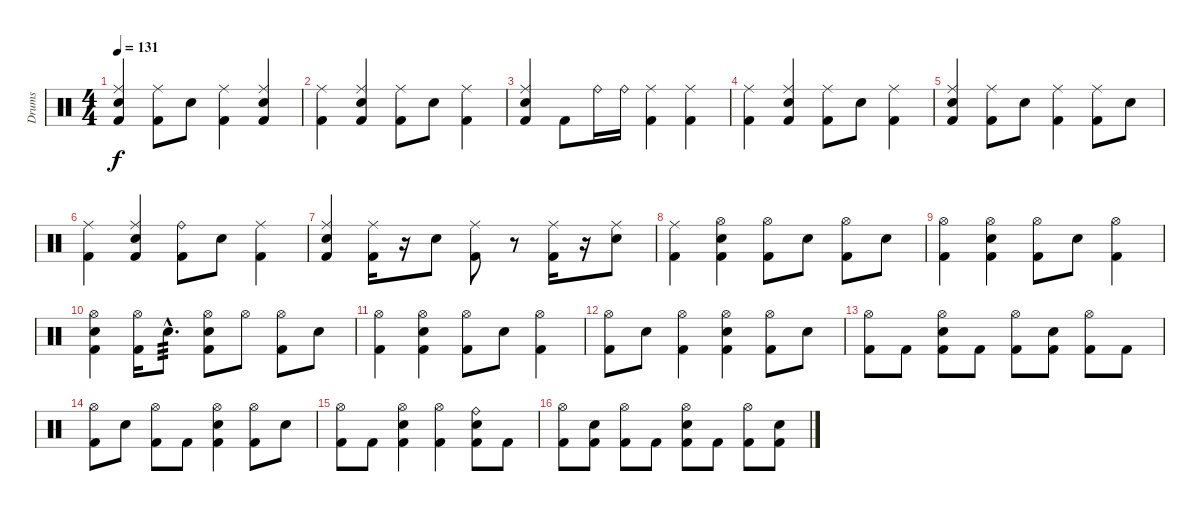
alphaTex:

\track ("Drums" "Drums") {instrument percussion}
\staff {score}
\articulation defaults
\ts (4 4)
\tempo 131
\clef neutral
\ks c
("Electric Snare (hit)" "Ride (middle)" "Kick (hit) 2").4{dy f} ("Ride (middle)" "Kick (hit) 2").8 "Electric Snare (hit)".8 ("Ride (middle)" "Kick (hit) 2").4 ("Electric Snare (hit)" "Ride (middle)" "Kick (hit) 2").4 |
("Ride (middle)" "Kick (hit) 2").4 ("Electric Snare (hit)" "Ride (middle)" "Kick (hit) 2").4 ("Ride (middle)" "Kick (hit) 2").8 "Electric Snare (hit)".8 ("Ride (middle)" "Kick (hit) 2").4 |
("Electric Snare (hit)" "Ride (middle)" "Kick (hit) 2").4 "Kick (hit) 2".8 "Ride (bell)".16 "Ride (bell)".16 ("Ride (middle)" "Kick (hit) 2").4 ("Ride (middle)" "Kick (hit) 2").4 |
("Ride (middle)" "Kick (hit) 2").4 ("Electric Snare (hit)" "Ride (middle)" "Kick (hit) 2").4 ("Ride (middle)" "Kick (hit) 2").8 "Electric Snare (hit)".8 ("Ride (middle)" "Kick (hit) 2").4 |
("Electric Snare (hit)" "Ride (middle)" "Kick (hit) 2").4 ("Ride (middle)" "Kick (hit) 2").8 "Electric Snare (hit)".8 ("Ride (middle)" "Kick (hit) 2").4 ("Ride (middle)" "Kick (hit) 2").8 "Electric Snare (hit)".8 |
("Ride (middle)" "Kick (hit) 2").4 ("Electric Snare (hit)" "Ride (middle)" "Kick (hit) 2").4 ("Ride (bell)" "Kick (hit) 2").8 "Electric Snare (hit)".8 ("Ride (middle)" "Kick (hit) 2").4 |
("Electric Snare (hit)" "Ride (middle)" "Kick (hit) 2").4 ("Ride (middle)" "Kick (hit) 2").16 r.16 "Electric Snare (hit)".8 ("Ride (middle)" "Kick (hit) 2").8 r.8 ("Ride (middle)" "Kick (hit) 2").16 r.16 ("Ride (middle)" "Electric Snare (hit)").8 |
("Ride (middle)" "Kick (hit) 2").4 ("Electric Snare (hit)" "Hi-Hat (open)" "Kick (hit) 2").4 ("Hi-Hat (open)" "Kick (hit) 2").8 "Electric Snare (hit)".8 ("Hi-Hat (open)" "Kick (hit) 2").8 "Electric Snare (hit)".8 |
("Hi-Hat (open)" "Kick (hit) 2").4 ("Electric Snare (hit)" "Hi-Hat (open)" "Kick (hit) 2").4 ("Hi-Hat (open)" "Kick (hit) 2").8 "Electric Snare (hit)".8 ("Hi-Hat (open)" "Kick (hit) 2").4 |
("Electric Snare (hit)" "Hi-Hat (open)" "Kick (hit) 2").4 ("Hi-Hat (open)" "Kick (hit) 2").16 "Electric Snare (hit)"{hac}.8{d tp 3} ("Electric Snare (hit)" "Hi-Hat (open)" "Kick (hit) 2").8 "Hi-Hat (open)".8 ("Hi-Hat (open)" "Kick (hit) 2").8 "Electric Snare (hit)".8 |
("Hi-Hat (open)" "Kick (hit) 2").4 ("Electric Snare (hit)" "Hi-Hat (open)" "Kick (hit) 2").4 ("Hi-Hat (open)" "Kick (hit) 2").8 "Electric Snare (hit)".8 ("Hi-Hat (open)" "Kick (hit) 2").4 |
("Hi-Hat (open)" "Kick (hit) 2").8 "Electric Snare (hit)".8 ("Hi-Hat (open)" "Kick (hit) 2").4 ("Electric Snare (hit)" "Hi-Hat (open)" "Kick (hit) 2").4 ("Hi-Hat (open)" "Kick (hit) 2").8 "Electric Snare (hit)".8 |
("Hi-Hat (open)" "Kick (hit) 2").8 "Kick (hit) 2".8 ("Electric Snare (hit)" "Hi-Hat (open)" "Kick (hit) 2").8 "Kick (hit) 2".8 ("Hi-Hat (open)" "Kick (hit) 2").8 ("Electric Snare (hit)" "Kick (hit) 2").8 ("Hi-Hat (open)" "Kick (hit) 2").8 "Kick (hit) 2".8 |
("Hi-Hat (open)" "Kick (hit) 2").8 "Electric Snare (hit)".8 ("Hi-Hat (open)" "Kick (hit) 2").8 "Kick (hit) 2".8 ("Electric Snare (hit)" "Hi-Hat (open)" "Kick (hit) 2").4 ("Hi-Hat (open)" "Kick (hit) 2").8 "Electric Snare (hit)".8 |
("Hi-Hat (open)" "Kick (hit) 2").8 "Kick (hit) 2".8 ("Electric Snare (hit)" "Hi-Hat (open)" "Kick (hit) 2").4 ("Hi-Hat (open)" "Kick (hit) 2").4 ("Electric Snare (hit)" "Ride (bell)" "Kick (hit) 2").8 "Kick (hit) 2".8 |
("Hi-Hat (open)" "Kick (hit) 2").8 ("Electric Snare (hit)" "Kick (hit) 2").8 ("Hi-Hat (open)" "Kick (hit) 2").8 "Kick (hit) 2".8 ("Electric Snare (hit)" "Hi-Hat (open)" "Kick (hit) 2").8 "Kick (hit) 2".8 ("Hi-Hat (open)" "Kick (hit) 2").8 ("Electric Snare (hit)" "Kick (hit) 2").8
